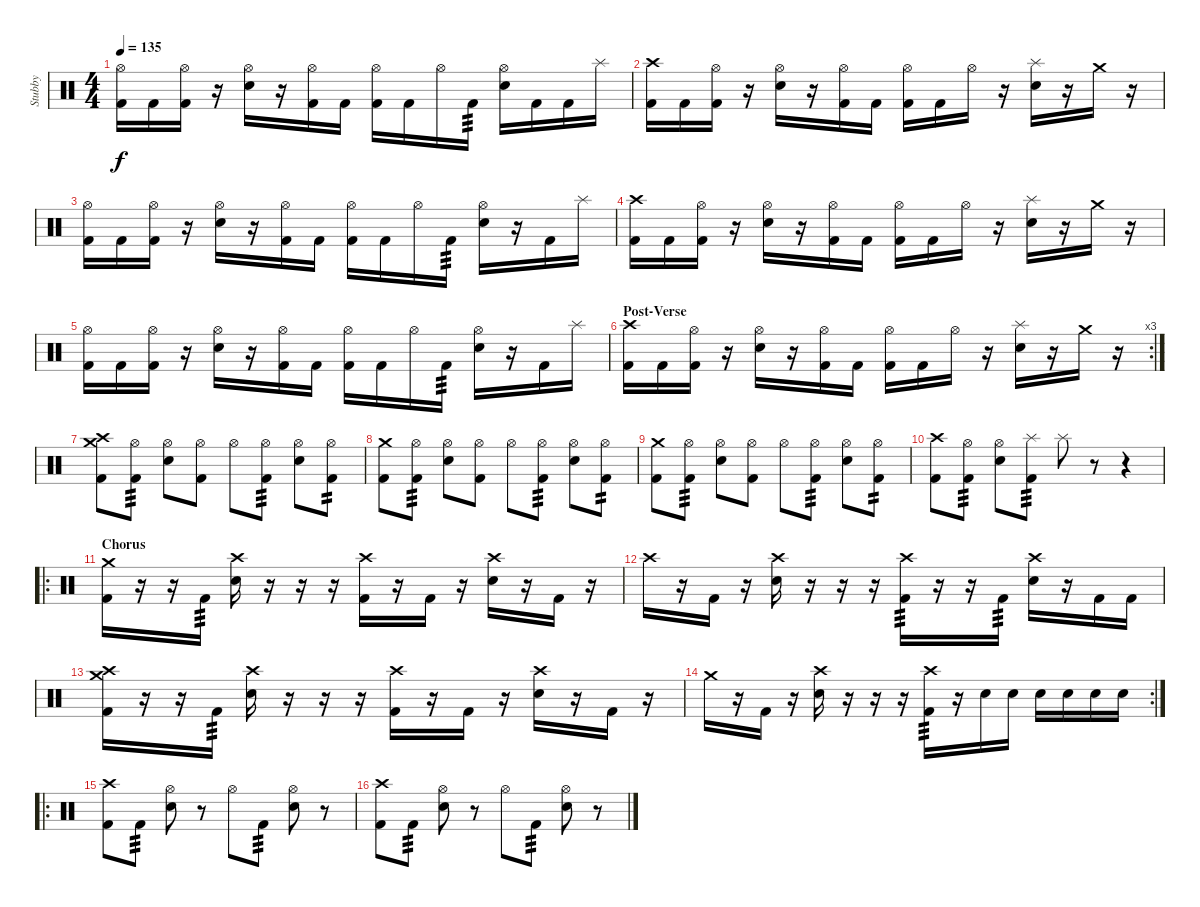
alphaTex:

\track ("Stubby" "Stubby") {instrument percussion}
\staff {score}
\articulation defaults
\ts (4 4)
\tempo 135
\clef neutral
\ks c
("Hi-Hat (open)" "Kick (hit) 2").16{dy f} "Kick (hit) 2".16 ("Hi-Hat (open)" "Kick (hit) 2").16 r.16 ("Hi-Hat (open)" "Electric Snare (hit)").16 r.16 ("Hi-Hat (open)" "Kick (hit) 2").16 "Kick (hit) 2".16 ("Hi-Hat (open)" "Kick (hit) 2").16 "Kick (hit) 2".16 "Hi-Hat (open)".16 "Kick (hit) 2".16{tp 3} ("Hi-Hat (open)" "Electric Snare (hit)").16 "Kick (hit) 2".16 "Kick (hit) 2".16 "Splash (hit)".16 |
("Crash high (hit)" "Kick (hit) 2").16 "Kick (hit) 2".16 ("Hi-Hat (open)" "Kick (hit) 2").16 r.16 ("Hi-Hat (open)" "Electric Snare (hit)").16 r.16 ("Hi-Hat (open)" "Kick (hit) 2").16 "Kick (hit) 2".16 ("Hi-Hat (open)" "Kick (hit) 2").16 "Kick (hit) 2".16 "Hi-Hat (open)".16 r.16 ("Splash (hit)" "Electric Snare (hit)").16 r.16 "Crash medium (hit)".16 r.16 |
("Hi-Hat (open)" "Kick (hit) 2").16 "Kick (hit) 2".16 ("Hi-Hat (open)" "Kick (hit) 2").16 r.16 ("Hi-Hat (open)" "Electric Snare (hit)").16 r.16 ("Hi-Hat (open)" "Kick (hit) 2").16 "Kick (hit) 2".16 ("Hi-Hat (open)" "Kick (hit) 2").16 "Kick (hit) 2".16 "Hi-Hat (open)".16 "Kick (hit) 2".16{tp 3} ("Hi-Hat (open)" "Electric Snare (hit)").16 r.16 "Kick (hit) 2".16 "Splash (hit)".16 |
("Crash high (hit)" "Kick (hit) 2").16 "Kick (hit) 2".16 ("Hi-Hat (open)" "Kick (hit) 2").16 r.16 ("Hi-Hat (open)" "Electric Snare (hit)").16 r.16 ("Hi-Hat (open)" "Kick (hit) 2").16 "Kick (hit) 2".16 ("Hi-Hat (open)" "Kick (hit) 2").16 "Kick (hit) 2".16 "Hi-Hat (open)".16 r.16 ("Splash (hit)" "Electric Snare (hit)").16 r.16 "Crash medium (hit)".16 r.16 |
("Hi-Hat (open)" "Kick (hit) 2").16 "Kick (hit) 2".16 ("Hi-Hat (open)" "Kick (hit) 2").16 r.16 ("Hi-Hat (open)" "Electric Snare (hit)").16 r.16 ("Hi-Hat (open)" "Kick (hit) 2").16 "Kick (hit) 2".16 ("Hi-Hat (open)" "Kick (hit) 2").16 "Kick (hit) 2".16 "Hi-Hat (open)".16 "Kick (hit) 2".16{tp 3} ("Hi-Hat (open)" "Electric Snare (hit)").16 r.16 "Kick (hit) 2".16 "Splash (hit)".16 |
\rc 3
\section ("" "Post-Verse")
("Crash high (hit)" "Kick (hit) 2").16 "Kick (hit) 2".16 ("Hi-Hat (open)" "Kick (hit) 2").16 r.16 ("Hi-Hat (open)" "Electric Snare (hit)").16 r.16 ("Hi-Hat (open)" "Kick (hit) 2").16 "Kick (hit) 2".16 ("Hi-Hat (open)" "Kick (hit) 2").16 "Kick (hit) 2".16 "Hi-Hat (open)".16 r.16 ("Splash (hit)" "Electric Snare (hit)").16 r.16 "Crash medium (hit)".16 r.16 |
("Crash high (hit)" "Crash medium (hit)" "Kick (hit) 2").8 ("Hi-Hat (open)" "Kick (hit) 2").8{tp 3} ("Hi-Hat (open)" "Electric Snare (hit)").8 ("Hi-Hat (open)" "Kick (hit) 2").8 "Hi-Hat (open)".8 ("Hi-Hat (open)" "Kick (hit) 2").8{tp 3} ("Hi-Hat (open)" "Electric Snare (hit)").8 ("Hi-Hat (open)" "Kick (hit) 2").8{tp 2} |
("Crash medium (hit)" "Kick (hit) 2").8 ("Hi-Hat (open)" "Kick (hit) 2").8{tp 3} ("Hi-Hat (open)" "Electric Snare (hit)").8 ("Hi-Hat (open)" "Kick (hit) 2").8 "Hi-Hat (open)".8 ("Hi-Hat (open)" "Kick (hit) 2").8{tp 3} ("Hi-Hat (open)" "Electric Snare (hit)").8 ("Hi-Hat (open)" "Kick (hit) 2").8{tp 2} |
("Crash medium (hit)" "Kick (hit) 2").8 ("Hi-Hat (open)" "Kick (hit) 2").8{tp 3} ("Hi-Hat (open)" "Electric Snare (hit)").8 ("Hi-Hat (open)" "Kick (hit) 2").8 "Hi-Hat (open)".8 ("Hi-Hat (open)" "Kick (hit) 2").8{tp 3} ("Hi-Hat (open)" "Electric Snare (hit)").8 ("Hi-Hat (open)" "Kick (hit) 2").8{tp 2} |
("Crash high (hit)" "Kick (hit) 2").8 ("Hi-Hat (open)" "Kick (hit) 2").8{tp 3} ("Hi-Hat (open)" "Electric Snare (hit)").8 ("Splash (hit)" "Kick (hit) 2").8{tp 3} "Splash (hit)".8 r.8 r.4 |
\ro
\section ("" "Chorus")
("Crash medium (hit)" "Kick (hit) 2").16 r.16 r.16 "Kick (hit) 2".16{tp 3} ("Crash high (hit)" "Electric Snare (hit)").16 r.16 r.16 r.16 ("Crash high (hit)" "Kick (hit) 2").16 r.16 "Kick (hit) 2".16 r.16 ("Crash high (hit)" "Electric Snare (hit)").16 r.16 "Kick (hit) 2".16 r.16 |
"Crash high (hit)".16 r.16 "Kick (hit) 2".16 r.16 ("Crash high (hit)" "Electric Snare (hit)").16 r.16 r.16 r.16 ("Crash high (hit)" "Kick (hit) 2").16{tp 3} r.16 r.16 "Kick (hit) 2".16{tp 3} ("Crash high (hit)" "Electric Snare (hit)").16 r.16 "Kick (hit) 2".16 "Kick (hit) 2".16 |
("Crash medium (hit)" "Crash high (hit)" "Kick (hit) 2").16 r.16 r.16 "Kick (hit) 2".16{tp 3} ("Crash high (hit)" "Electric Snare (hit)").16 r.16 r.16 r.16 ("Crash high (hit)" "Kick (hit) 2").16 r.16 "Kick (hit) 2".16 r.16 ("Crash high (hit)" "Electric Snare (hit)").16 r.16 "Kick (hit) 2".16 r.16 |
\rc 2 "Crash medium (hit)".16
r.16 "Kick (hit) 2".16 r.16 ("Crash high (hit)" "Electric Snare (hit)").16 r.16 r.16 r.16 ("Crash high (hit)" "Kick (hit) 2").16{tp 3} r.16 "Electric Snare (hit)".16 "Electric Snare (hit)".16 "Electric Snare (hit)".16 "Electric Snare (hit)".16 "Electric Snare (hit)".16 "Electric Snare (hit)".16 |
\ro
("Crash high (hit)" "Kick (hit) 2").8 "Kick (hit) 2".8{tp 3} ("Hi-Hat (open)" "Electric Snare (hit)").8 r.8 "Hi-Hat (open)".8 "Kick (hit) 2".8{tp 3} ("Hi-Hat (open)" "Electric Snare (hit)").8 r.8 |
("Crash high (hit)" "Kick (hit) 2").8 "Kick (hit) 2".8{tp 3} ("Hi-Hat (open)" "Electric Snare (hit)").8 r.8 "Hi-Hat (open)".8 "Kick (hit) 2".8{tp 3} ("Hi-Hat (open)" "Electric Snare (hit)").8 r.8
